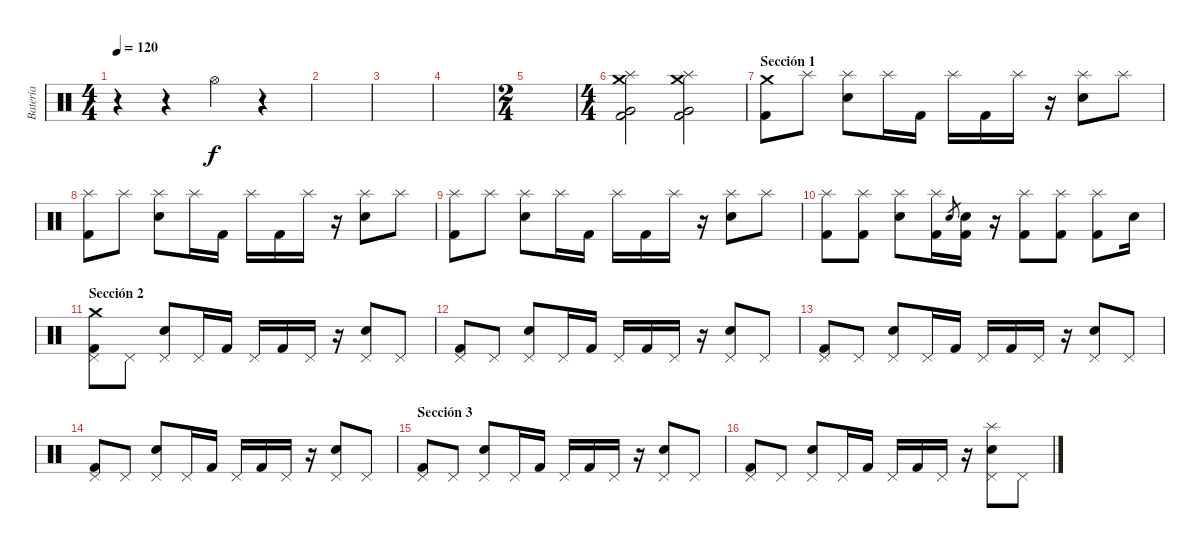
\track ("Batería" "Batería") {instrument percussion}
\staff {score}
\articulation defaults
\ts (4 4)
\section ("" "")
\tempo 120
\clef neutral
\ks c
r.4{dy f} r.4 "Hi-Hat (open)".4 r.4 |
|
|
|
\ts (2 4)
|
\ts (4 4)
("Splash (hit)" "Crash medium (hit)" "Very Low Tom (hit)" "Kick (hit) 2").2 ("Splash (hit)" "Crash medium (hit)" "Very Low Tom (hit)" "Kick (hit) 2").2 |
\section ("" "Sección 1")
("Crash medium (hit)" "Kick (hit) 2").8 "Splash (hit)".8 ("Splash (hit)" "Electric Snare (hit)").8 "Splash (hit)".16 "Kick (hit) 2".16 "Splash (hit)".16 "Kick (hit) 2".16 "Splash (hit)".16 r.16 ("Splash (hit)" "Electric Snare (hit)").8 "Splash (hit)".8 |
("Splash (hit)" "Kick (hit) 2").8 "Splash (hit)".8 ("Splash (hit)" "Electric Snare (hit)").8 "Splash (hit)".16 "Kick (hit) 2".16 "Splash (hit)".16 "Kick (hit) 2".16 "Splash (hit)".16 r.16 ("Splash (hit)" "Electric Snare (hit)").8 "Splash (hit)".8 |
("Splash (hit)" "Kick (hit) 2").8 "Splash (hit)".8 ("Splash (hit)" "Electric Snare (hit)").8 "Splash (hit)".16 "Kick (hit) 2".16 "Splash (hit)".16 "Kick (hit) 2".16 "Splash (hit)".16 r.16 ("Splash (hit)" "Electric Snare (hit)").8 "Splash (hit)".8 |
("Splash (hit)" "Kick (hit) 2").8 ("Splash (hit)" "Kick (hit) 2").8 ("Splash (hit)" "Electric Snare (hit)").8 ("Splash (hit)" "Kick (hit) 2").16 "Electric Snare (hit)".8{gr} ("Electric Snare (hit)" "Kick (hit) 2").16 r.16 ("Splash (hit)" "Kick (hit) 2").8 ("Splash (hit)" "Kick (hit) 2").8 ("Splash (hit)" "Kick (hit) 2").8 "Electric Snare (hit)".16 |
\section ("" "Sección 2")
("Pedal Hi-Hat (hit)" "Crash medium (hit)" "Kick (hit) 2").8 "Pedal Hi-Hat (hit)".8 ("Pedal Hi-Hat (hit)" "Electric Snare (hit)").8 "Pedal Hi-Hat (hit)".16 "Kick (hit) 2".16 "Pedal Hi-Hat (hit)".16 "Kick (hit) 2".16 "Pedal Hi-Hat (hit)".16 r.16 ("Pedal Hi-Hat (hit)" "Electric Snare (hit)").8 "Pedal Hi-Hat (hit)".8 |
("Pedal Hi-Hat (hit)" "Kick (hit) 2").8 "Pedal Hi-Hat (hit)".8 ("Pedal Hi-Hat (hit)" "Electric Snare (hit)").8 "Pedal Hi-Hat (hit)".16 "Kick (hit) 2".16 "Pedal Hi-Hat (hit)".16 "Kick (hit) 2".16 "Pedal Hi-Hat (hit)".16 r.16 ("Pedal Hi-Hat (hit)" "Electric Snare (hit)").8 "Pedal Hi-Hat (hit)".8 |
("Pedal Hi-Hat (hit)" "Kick (hit) 2").8 "Pedal Hi-Hat (hit)".8 ("Pedal Hi-Hat (hit)" "Electric Snare (hit)").8 "Pedal Hi-Hat (hit)".16 "Kick (hit) 2".16 "Pedal Hi-Hat (hit)".16 "Kick (hit) 2".16 "Pedal Hi-Hat (hit)".16 r.16 ("Pedal Hi-Hat (hit)" "Electric Snare (hit)").8 "Pedal Hi-Hat (hit)".8 |
("Pedal Hi-Hat (hit)" "Kick (hit) 2").8 "Pedal Hi-Hat (hit)".8 ("Pedal Hi-Hat (hit)" "Electric Snare (hit)").8 "Pedal Hi-Hat (hit)".16 "Kick (hit) 2".16 "Pedal Hi-Hat (hit)".16 "Kick (hit) 2".16 "Pedal Hi-Hat (hit)".16 r.16 ("Pedal Hi-Hat (hit)" "Electric Snare (hit)").8 "Pedal Hi-Hat (hit)".8 |
\section ("" "Sección 3")
("Pedal Hi-Hat (hit)" "Kick (hit) 2").8 "Pedal Hi-Hat (hit)".8 ("Pedal Hi-Hat (hit)" "Electric Snare (hit)").8 "Pedal Hi-Hat (hit)".16 "Kick (hit) 2".16 "Pedal Hi-Hat (hit)".16 "Kick (hit) 2".16 "Pedal Hi-Hat (hit)".16 r.16 ("Pedal Hi-Hat (hit)" "Electric Snare (hit)").8 "Pedal Hi-Hat (hit)".8 |
("Pedal Hi-Hat (hit)" "Kick (hit) 2").8 "Pedal Hi-Hat (hit)".8 ("Pedal Hi-Hat (hit)" "Electric Snare (hit)").8 "Pedal Hi-Hat (hit)".16 "Kick (hit) 2".16 "Pedal Hi-Hat (hit)".16 "Kick (hit) 2".16 "Pedal Hi-Hat (hit)".16 r.16 ("Pedal Hi-Hat (hit)" "Splash (hit)" "Electric Snare (hit)").8 "Pedal Hi-Hat (hit)".8
